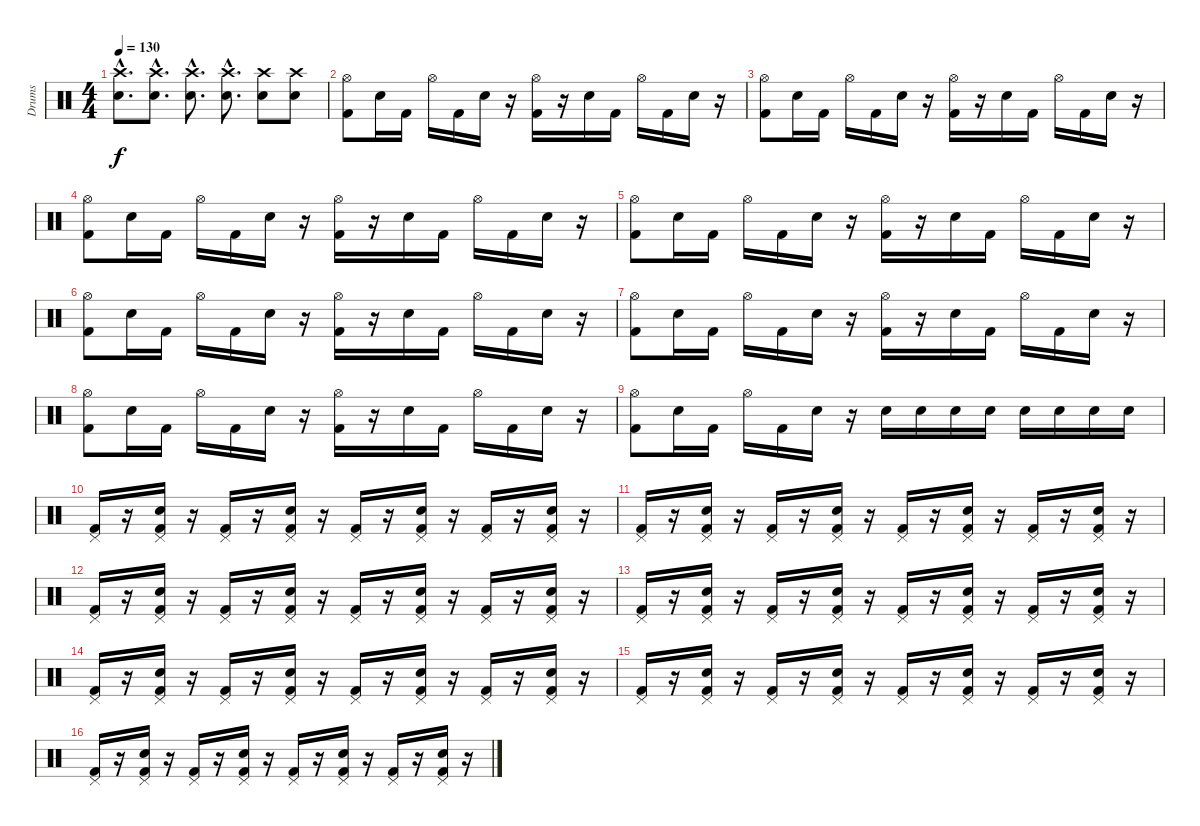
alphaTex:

\track ("Drums" "Drums") {instrument percussion}
\staff {score}
\articulation defaults
\ts (4 4)
\tempo 130
\clef neutral
\ks c
("Crash high (hit)"{hac} "Electric Snare (hit)"{hac}).8{d dy f} ("Crash high (hit)"{hac} "Electric Snare (hit)"{hac}).8{d} ("Crash high (hit)"{hac} "Electric Snare (hit)"{hac}).8{d} ("Crash high (hit)"{hac} "Electric Snare (hit)"{hac}).8{d} ("Crash high (hit)" "Electric Snare (hit)").8 ("Crash high (hit)" "Electric Snare (hit)").8 |
("Hi-Hat (open)" "Kick (hit) 2").8 "Electric Snare (hit)".16 "Kick (hit) 2".16 "Hi-Hat (open)".16 "Kick (hit) 2".16 "Electric Snare (hit)".16 r.16 ("Hi-Hat (open)" "Kick (hit) 2").16 r.16 "Electric Snare (hit)".16 "Kick (hit) 2".16 "Hi-Hat (open)".16 "Kick (hit) 2".16 "Electric Snare (hit)".16 r.16 |
("Hi-Hat (open)" "Kick (hit) 2").8 "Electric Snare (hit)".16 "Kick (hit) 2".16 "Hi-Hat (open)".16 "Kick (hit) 2".16 "Electric Snare (hit)".16 r.16 ("Hi-Hat (open)" "Kick (hit) 2").16 r.16 "Electric Snare (hit)".16 "Kick (hit) 2".16 "Hi-Hat (open)".16 "Kick (hit) 2".16 "Electric Snare (hit)".16 r.16 |
("Hi-Hat (open)" "Kick (hit) 2").8 "Electric Snare (hit)".16 "Kick (hit) 2".16 "Hi-Hat (open)".16 "Kick (hit) 2".16 "Electric Snare (hit)".16 r.16 ("Hi-Hat (open)" "Kick (hit) 2").16 r.16 "Electric Snare (hit)".16 "Kick (hit) 2".16 "Hi-Hat (open)".16 "Kick (hit) 2".16 "Electric Snare (hit)".16 r.16 |
("Hi-Hat (open)" "Kick (hit) 2").8 "Electric Snare (hit)".16 "Kick (hit) 2".16 "Hi-Hat (open)".16 "Kick (hit) 2".16 "Electric Snare (hit)".16 r.16 ("Hi-Hat (open)" "Kick (hit) 2").16 r.16 "Electric Snare (hit)".16 "Kick (hit) 2".16 "Hi-Hat (open)".16 "Kick (hit) 2".16 "Electric Snare (hit)".16 r.16 |
("Hi-Hat (open)" "Kick (hit) 2").8 "Electric Snare (hit)".16 "Kick (hit) 2".16 "Hi-Hat (open)".16 "Kick (hit) 2".16 "Electric Snare (hit)".16 r.16 ("Hi-Hat (open)" "Kick (hit) 2").16 r.16 "Electric Snare (hit)".16 "Kick (hit) 2".16 "Hi-Hat (open)".16 "Kick (hit) 2".16 "Electric Snare (hit)".16 r.16 |
("Hi-Hat (open)" "Kick (hit) 2").8 "Electric Snare (hit)".16 "Kick (hit) 2".16 "Hi-Hat (open)".16 "Kick (hit) 2".16 "Electric Snare (hit)".16 r.16 ("Hi-Hat (open)" "Kick (hit) 2").16 r.16 "Electric Snare (hit)".16 "Kick (hit) 2".16 "Hi-Hat (open)".16 "Kick (hit) 2".16 "Electric Snare (hit)".16 r.16 |
("Hi-Hat (open)" "Kick (hit) 2").8 "Electric Snare (hit)".16 "Kick (hit) 2".16 "Hi-Hat (open)".16 "Kick (hit) 2".16 "Electric Snare (hit)".16 r.16 ("Hi-Hat (open)" "Kick (hit) 2").16 r.16 "Electric Snare (hit)".16 "Kick (hit) 2".16 "Hi-Hat (open)".16 "Kick (hit) 2".16 "Electric Snare (hit)".16 r.16 |
("Hi-Hat (open)" "Kick (hit) 2").8 "Electric Snare (hit)".16 "Kick (hit) 2".16 "Hi-Hat (open)".16 "Kick (hit) 2".16 "Electric Snare (hit)".16 r.16 "Electric Snare (hit)".16 "Electric Snare (hit)".16 "Electric Snare (hit)".16 "Electric Snare (hit)".16 "Electric Snare (hit)".16 "Electric Snare (hit)".16 "Electric Snare (hit)".16 "Electric Snare (hit)".16 |
("Pedal Hi-Hat (hit)" "Kick (hit) 2").16 r.16 ("Pedal Hi-Hat (hit)" "Electric Snare (hit)" "Kick (hit) 2").16 r.16 ("Pedal Hi-Hat (hit)" "Kick (hit) 2").16 r.16 ("Pedal Hi-Hat (hit)" "Electric Snare (hit)" "Kick (hit) 2").16 r.16 ("Pedal Hi-Hat (hit)" "Kick (hit) 2").16 r.16 ("Pedal Hi-Hat (hit)" "Electric Snare (hit)" "Kick (hit) 2").16 r.16 ("Pedal Hi-Hat (hit)" "Kick (hit) 2").16 r.16 ("Pedal Hi-Hat (hit)" "Electric Snare (hit)" "Kick (hit) 2").16 r.16 |
("Pedal Hi-Hat (hit)" "Kick (hit) 2").16 r.16 ("Pedal Hi-Hat (hit)" "Electric Snare (hit)" "Kick (hit) 2").16 r.16 ("Pedal Hi-Hat (hit)" "Kick (hit) 2").16 r.16 ("Pedal Hi-Hat (hit)" "Electric Snare (hit)" "Kick (hit) 2").16 r.16 ("Pedal Hi-Hat (hit)" "Kick (hit) 2").16 r.16 ("Pedal Hi-Hat (hit)" "Electric Snare (hit)" "Kick (hit) 2").16 r.16 ("Pedal Hi-Hat (hit)" "Kick (hit) 2").16 r.16 ("Pedal Hi-Hat (hit)" "Electric Snare (hit)" "Kick (hit) 2").16 r.16 |
("Pedal Hi-Hat (hit)" "Kick (hit) 2").16 r.16 ("Pedal Hi-Hat (hit)" "Electric Snare (hit)" "Kick (hit) 2").16 r.16 ("Pedal Hi-Hat (hit)" "Kick (hit) 2").16 r.16 ("Pedal Hi-Hat (hit)" "Electric Snare (hit)" "Kick (hit) 2").16 r.16 ("Pedal Hi-Hat (hit)" "Kick (hit) 2").16 r.16 ("Pedal Hi-Hat (hit)" "Electric Snare (hit)" "Kick (hit) 2").16 r.16 ("Pedal Hi-Hat (hit)" "Kick (hit) 2").16 r.16 ("Pedal Hi-Hat (hit)" "Electric Snare (hit)" "Kick (hit) 2").16 r.16 |
("Pedal Hi-Hat (hit)" "Kick (hit) 2").16 r.16 ("Pedal Hi-Hat (hit)" "Electric Snare (hit)" "Kick (hit) 2").16 r.16 ("Pedal Hi-Hat (hit)" "Kick (hit) 2").16 r.16 ("Pedal Hi-Hat (hit)" "Electric Snare (hit)" "Kick (hit) 2").16 r.16 ("Pedal Hi-Hat (hit)" "Kick (hit) 2").16 r.16 ("Pedal Hi-Hat (hit)" "Electric Snare (hit)" "Kick (hit) 2").16 r.16 ("Pedal Hi-Hat (hit)" "Kick (hit) 2").16 r.16 ("Pedal Hi-Hat (hit)" "Electric Snare (hit)" "Kick (hit) 2").16 r.16 |
("Pedal Hi-Hat (hit)" "Kick (hit) 2").16 r.16 ("Pedal Hi-Hat (hit)" "Electric Snare (hit)" "Kick (hit) 2").16 r.16 ("Pedal Hi-Hat (hit)" "Kick (hit) 2").16 r.16 ("Pedal Hi-Hat (hit)" "Electric Snare (hit)" "Kick (hit) 2").16 r.16 ("Pedal Hi-Hat (hit)" "Kick (hit) 2").16 r.16 ("Pedal Hi-Hat (hit)" "Electric Snare (hit)" "Kick (hit) 2").16 r.16 ("Pedal Hi-Hat (hit)" "Kick (hit) 2").16 r.16 ("Pedal Hi-Hat (hit)" "Electric Snare (hit)" "Kick (hit) 2").16 r.16 |
("Pedal Hi-Hat (hit)" "Kick (hit) 2").16 r.16 ("Pedal Hi-Hat (hit)" "Electric Snare (hit)" "Kick (hit) 2").16 r.16 ("Pedal Hi-Hat (hit)" "Kick (hit) 2").16 r.16 ("Pedal Hi-Hat (hit)" "Electric Snare (hit)" "Kick (hit) 2").16 r.16 ("Pedal Hi-Hat (hit)" "Kick (hit) 2").16 r.16 ("Pedal Hi-Hat (hit)" "Electric Snare (hit)" "Kick (hit) 2").16 r.16 ("Pedal Hi-Hat (hit)" "Kick (hit) 2").16 r.16 ("Pedal Hi-Hat (hit)" "Electric Snare (hit)" "Kick (hit) 2").16 r.16 |
("Pedal Hi-Hat (hit)" "Kick (hit) 2").16 r.16 ("Pedal Hi-Hat (hit)" "Electric Snare (hit)" "Kick (hit) 2").16 r.16 ("Pedal Hi-Hat (hit)" "Kick (hit) 2").16 r.16 ("Pedal Hi-Hat (hit)" "Electric Snare (hit)" "Kick (hit) 2").16 r.16 ("Pedal Hi-Hat (hit)" "Kick (hit) 2").16 r.16 ("Pedal Hi-Hat (hit)" "Electric Snare (hit)" "Kick (hit) 2").16 r.16 ("Pedal Hi-Hat (hit)" "Kick (hit) 2").16 r.16 ("Pedal Hi-Hat (hit)" "Electric Snare (hit)" "Kick (hit) 2").16 r.16
